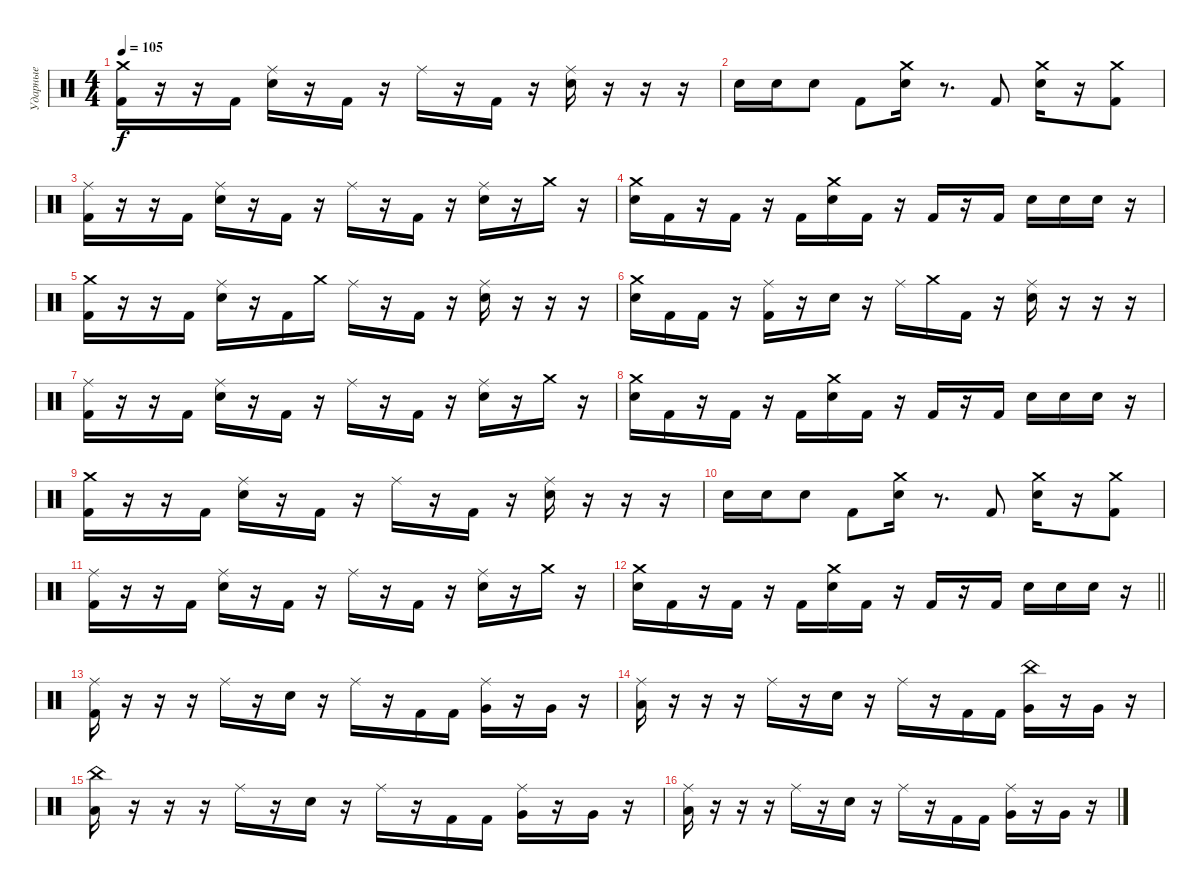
\track ("Ударные" "Ударные") {instrument percussion}
\staff {score}
\articulation defaults
\ts (4 4)
\tempo 105
\clef neutral
\ks c
("Crash medium (hit)" "Kick (hit) 2").16{dy f} r.16 r.16 "Kick (hit) 2".16 ("Ride (middle)" "Electric Snare (hit)").16 r.16 "Kick (hit) 2".16 r.16 "Ride (middle)".16 r.16 "Kick (hit) 2".16 r.16 ("Ride (middle)" "Electric Snare (hit)").16 r.16 r.16 r.16 |
"Electric Snare (hit)".16 "Electric Snare (hit)".16 "Electric Snare (hit)".8 "Kick (hit) 2".8 ("Crash medium (hit)" "Electric Snare (hit)").16 r.8{d} "Kick (hit) 2".8 ("Crash medium (hit)" "Electric Snare (hit)").16 r.16 ("Crash medium (hit)" "Kick (hit) 2").8 |
("Ride (middle)" "Kick (hit) 2").16 r.16 r.16 "Kick (hit) 2".16 ("Ride (middle)" "Electric Snare (hit)").16 r.16 "Kick (hit) 2".16 r.16 "Ride (middle)".16 r.16 "Kick (hit) 2".16 r.16 ("Ride (middle)" "Electric Snare (hit)").16 r.16 "Crash medium (hit)".16 r.16 |
("Crash medium (hit)" "Electric Snare (hit)").16 "Kick (hit) 2".16 r.16 "Kick (hit) 2".16 r.16 "Kick (hit) 2".16 ("Crash medium (hit)" "Electric Snare (hit)").16 "Kick (hit) 2".16 r.16 "Kick (hit) 2".16 r.16 "Kick (hit) 2".16 "Electric Snare (hit)".16 "Electric Snare (hit)".16 "Electric Snare (hit)".16 r.16 |
("Crash medium (hit)" "Kick (hit) 2").16 r.16 r.16 "Kick (hit) 2".16 ("Ride (middle)" "Electric Snare (hit)").16 r.16 "Kick (hit) 2".16 "Crash medium (hit)".16 "Ride (middle)".16 r.16 "Kick (hit) 2".16 r.16 ("Ride (middle)" "Electric Snare (hit)").16 r.16 r.16 r.16 |
("Crash medium (hit)" "Electric Snare (hit)").16 "Kick (hit) 2".16 "Kick (hit) 2".16 r.16 ("Ride (middle)" "Kick (hit) 2").16 r.16 "Electric Snare (hit)".16 r.16 "Ride (middle)".16 "Crash medium (hit)".16 "Kick (hit) 2".16 r.16 ("Ride (middle)" "Electric Snare (hit)").16 r.16 r.16 r.16 |
("Ride (middle)" "Kick (hit) 2").16 r.16 r.16 "Kick (hit) 2".16 ("Ride (middle)" "Electric Snare (hit)").16 r.16 "Kick (hit) 2".16 r.16 "Ride (middle)".16 r.16 "Kick (hit) 2".16 r.16 ("Ride (middle)" "Electric Snare (hit)").16 r.16 "Crash medium (hit)".16 r.16 |
("Crash medium (hit)" "Electric Snare (hit)").16 "Kick (hit) 2".16 r.16 "Kick (hit) 2".16 r.16 "Kick (hit) 2".16 ("Crash medium (hit)" "Electric Snare (hit)").16 "Kick (hit) 2".16 r.16 "Kick (hit) 2".16 r.16 "Kick (hit) 2".16 "Electric Snare (hit)".16 "Electric Snare (hit)".16 "Electric Snare (hit)".16 r.16 |
("Crash medium (hit)" "Kick (hit) 2").16 r.16 r.16 "Kick (hit) 2".16 ("Ride (middle)" "Electric Snare (hit)").16 r.16 "Kick (hit) 2".16 r.16 "Ride (middle)".16 r.16 "Kick (hit) 2".16 r.16 ("Ride (middle)" "Electric Snare (hit)").16 r.16 r.16 r.16 |
"Electric Snare (hit)".16 "Electric Snare (hit)".16 "Electric Snare (hit)".8 "Kick (hit) 2".8 ("Crash medium (hit)" "Electric Snare (hit)").16 r.8{d} "Kick (hit) 2".8 ("Crash medium (hit)" "Electric Snare (hit)").16 r.16 ("Crash medium (hit)" "Kick (hit) 2").8 |
("Ride (middle)" "Kick (hit) 2").16 r.16 r.16 "Kick (hit) 2".16 ("Ride (middle)" "Electric Snare (hit)").16 r.16 "Kick (hit) 2".16 r.16 "Ride (middle)".16 r.16 "Kick (hit) 2".16 r.16 ("Ride (middle)" "Electric Snare (hit)").16 r.16 "Crash medium (hit)".16 r.16 |
\barLineRight lightlight
("Crash medium (hit)" "Electric Snare (hit)").16 "Kick (hit) 2".16 r.16 "Kick (hit) 2".16 r.16 "Kick (hit) 2".16 ("Crash medium (hit)" "Electric Snare (hit)").16 "Kick (hit) 2".16 r.16 "Kick (hit) 2".16 r.16 "Kick (hit) 2".16 "Electric Snare (hit)".16 "Electric Snare (hit)".16 "Electric Snare (hit)".16 r.16 |
("Ride (middle)" "Kick (hit) 2").16 r.16 r.16 r.16 "Ride (middle)".16 r.16 "Electric Snare (hit)".16 r.16 "Ride (middle)".16 r.16 "Kick (hit) 2".16 "Kick (hit) 2".16 ("Ride (middle)" "Very Low Tom (hit)").16 r.16 "Very Low Tom (hit)".16 r.16 |
("Ride (middle)" "Low Floor Tom (hit)").16 r.16 r.16 r.16 "Ride (middle)".16 r.16 "Electric Snare (hit)".16 r.16 "Ride (middle)".16 r.16 "Kick (hit) 2".16 "Kick (hit) 2".16 ("China (hit)" "Very Low Tom (hit)").16 r.16 "Very Low Tom (hit)".16 r.16 |
("China (hit)" "Low Floor Tom (hit)").16 r.16 r.16 r.16 "Ride (middle)".16 r.16 "Electric Snare (hit)".16 r.16 "Ride (middle)".16 r.16 "Kick (hit) 2".16 "Kick (hit) 2".16 ("Ride (middle)" "Very Low Tom (hit)").16 r.16 "Very Low Tom (hit)".16 r.16 |
("Ride (middle)" "Low Floor Tom (hit)").16 r.16 r.16 r.16 "Ride (middle)".16 r.16 "Electric Snare (hit)".16 r.16 "Ride (middle)".16 r.16 "Kick (hit) 2".16 "Kick (hit) 2".16 ("Ride (middle)" "Very Low Tom (hit)").16 r.16 "Very Low Tom (hit)".16 r.16
